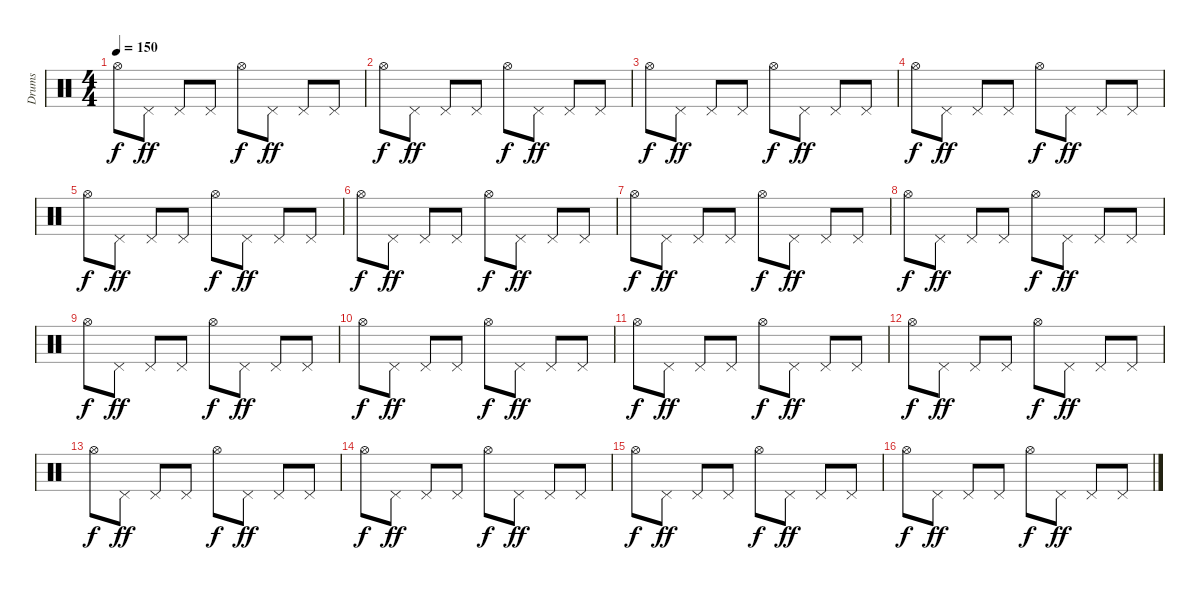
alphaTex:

\track ("Drums" "Drums") {instrument percussion}
\staff {score}
\articulation defaults
\ts (4 4)
\tempo 150
\clef neutral
\ks c "Hi-Hat (open)".8{dy f} "Pedal Hi-Hat (hit)".8{dy ff} "Pedal Hi-Hat (hit)".8 "Pedal Hi-Hat (hit)".8 "Hi-Hat (open)".8{dy f} "Pedal Hi-Hat (hit)".8{dy ff} "Pedal Hi-Hat (hit)".8 "Pedal Hi-Hat (hit)".8
|
"Hi-Hat (open)".8{dy f} "Pedal Hi-Hat (hit)".8{dy ff} "Pedal Hi-Hat (hit)".8 "Pedal Hi-Hat (hit)".8 "Hi-Hat (open)".8{dy f} "Pedal Hi-Hat (hit)".8{dy ff} "Pedal Hi-Hat (hit)".8 "Pedal Hi-Hat (hit)".8 |
"Hi-Hat (open)".8{dy f} "Pedal Hi-Hat (hit)".8{dy ff} "Pedal Hi-Hat (hit)".8 "Pedal Hi-Hat (hit)".8 "Hi-Hat (open)".8{dy f} "Pedal Hi-Hat (hit)".8{dy ff} "Pedal Hi-Hat (hit)".8 "Pedal Hi-Hat (hit)".8 |
"Hi-Hat (open)".8{dy f} "Pedal Hi-Hat (hit)".8{dy ff} "Pedal Hi-Hat (hit)".8 "Pedal Hi-Hat (hit)".8 "Hi-Hat (open)".8{dy f} "Pedal Hi-Hat (hit)".8{dy ff} "Pedal Hi-Hat (hit)".8 "Pedal Hi-Hat (hit)".8 |
"Hi-Hat (open)".8{dy f} "Pedal Hi-Hat (hit)".8{dy ff} "Pedal Hi-Hat (hit)".8 "Pedal Hi-Hat (hit)".8 "Hi-Hat (open)".8{dy f} "Pedal Hi-Hat (hit)".8{dy ff} "Pedal Hi-Hat (hit)".8 "Pedal Hi-Hat (hit)".8 |
"Hi-Hat (open)".8{dy f} "Pedal Hi-Hat (hit)".8{dy ff} "Pedal Hi-Hat (hit)".8 "Pedal Hi-Hat (hit)".8 "Hi-Hat (open)".8{dy f} "Pedal Hi-Hat (hit)".8{dy ff} "Pedal Hi-Hat (hit)".8 "Pedal Hi-Hat (hit)".8 |
"Hi-Hat (open)".8{dy f} "Pedal Hi-Hat (hit)".8{dy ff} "Pedal Hi-Hat (hit)".8 "Pedal Hi-Hat (hit)".8 "Hi-Hat (open)".8{dy f} "Pedal Hi-Hat (hit)".8{dy ff} "Pedal Hi-Hat (hit)".8 "Pedal Hi-Hat (hit)".8 |
"Hi-Hat (open)".8{dy f} "Pedal Hi-Hat (hit)".8{dy ff} "Pedal Hi-Hat (hit)".8 "Pedal Hi-Hat (hit)".8 "Hi-Hat (open)".8{dy f} "Pedal Hi-Hat (hit)".8{dy ff} "Pedal Hi-Hat (hit)".8 "Pedal Hi-Hat (hit)".8 |
"Hi-Hat (open)".8{dy f} "Pedal Hi-Hat (hit)".8{dy ff} "Pedal Hi-Hat (hit)".8 "Pedal Hi-Hat (hit)".8 "Hi-Hat (open)".8{dy f} "Pedal Hi-Hat (hit)".8{dy ff} "Pedal Hi-Hat (hit)".8 "Pedal Hi-Hat (hit)".8 |
"Hi-Hat (open)".8{dy f} "Pedal Hi-Hat (hit)".8{dy ff} "Pedal Hi-Hat (hit)".8 "Pedal Hi-Hat (hit)".8 "Hi-Hat (open)".8{dy f} "Pedal Hi-Hat (hit)".8{dy ff} "Pedal Hi-Hat (hit)".8 "Pedal Hi-Hat (hit)".8 |
"Hi-Hat (open)".8{dy f} "Pedal Hi-Hat (hit)".8{dy ff} "Pedal Hi-Hat (hit)".8 "Pedal Hi-Hat (hit)".8 "Hi-Hat (open)".8{dy f} "Pedal Hi-Hat (hit)".8{dy ff} "Pedal Hi-Hat (hit)".8 "Pedal Hi-Hat (hit)".8 |
"Hi-Hat (open)".8{dy f} "Pedal Hi-Hat (hit)".8{dy ff} "Pedal Hi-Hat (hit)".8 "Pedal Hi-Hat (hit)".8 "Hi-Hat (open)".8{dy f} "Pedal Hi-Hat (hit)".8{dy ff} "Pedal Hi-Hat (hit)".8 "Pedal Hi-Hat (hit)".8 |
"Hi-Hat (open)".8{dy f} "Pedal Hi-Hat (hit)".8{dy ff} "Pedal Hi-Hat (hit)".8 "Pedal Hi-Hat (hit)".8 "Hi-Hat (open)".8{dy f} "Pedal Hi-Hat (hit)".8{dy ff} "Pedal Hi-Hat (hit)".8 "Pedal Hi-Hat (hit)".8 |
"Hi-Hat (open)".8{dy f} "Pedal Hi-Hat (hit)".8{dy ff} "Pedal Hi-Hat (hit)".8 "Pedal Hi-Hat (hit)".8 "Hi-Hat (open)".8{dy f} "Pedal Hi-Hat (hit)".8{dy ff} "Pedal Hi-Hat (hit)".8 "Pedal Hi-Hat (hit)".8 |
"Hi-Hat (open)".8{dy f} "Pedal Hi-Hat (hit)".8{dy ff} "Pedal Hi-Hat (hit)".8 "Pedal Hi-Hat (hit)".8 "Hi-Hat (open)".8{dy f} "Pedal Hi-Hat (hit)".8{dy ff} "Pedal Hi-Hat (hit)".8 "Pedal Hi-Hat (hit)".8 |
"Hi-Hat (open)".8{dy f} "Pedal Hi-Hat (hit)".8{dy ff} "Pedal Hi-Hat (hit)".8 "Pedal Hi-Hat (hit)".8 "Hi-Hat (open)".8{dy f} "Pedal Hi-Hat (hit)".8{dy ff} "Pedal Hi-Hat (hit)".8 "Pedal Hi-Hat (hit)".8
